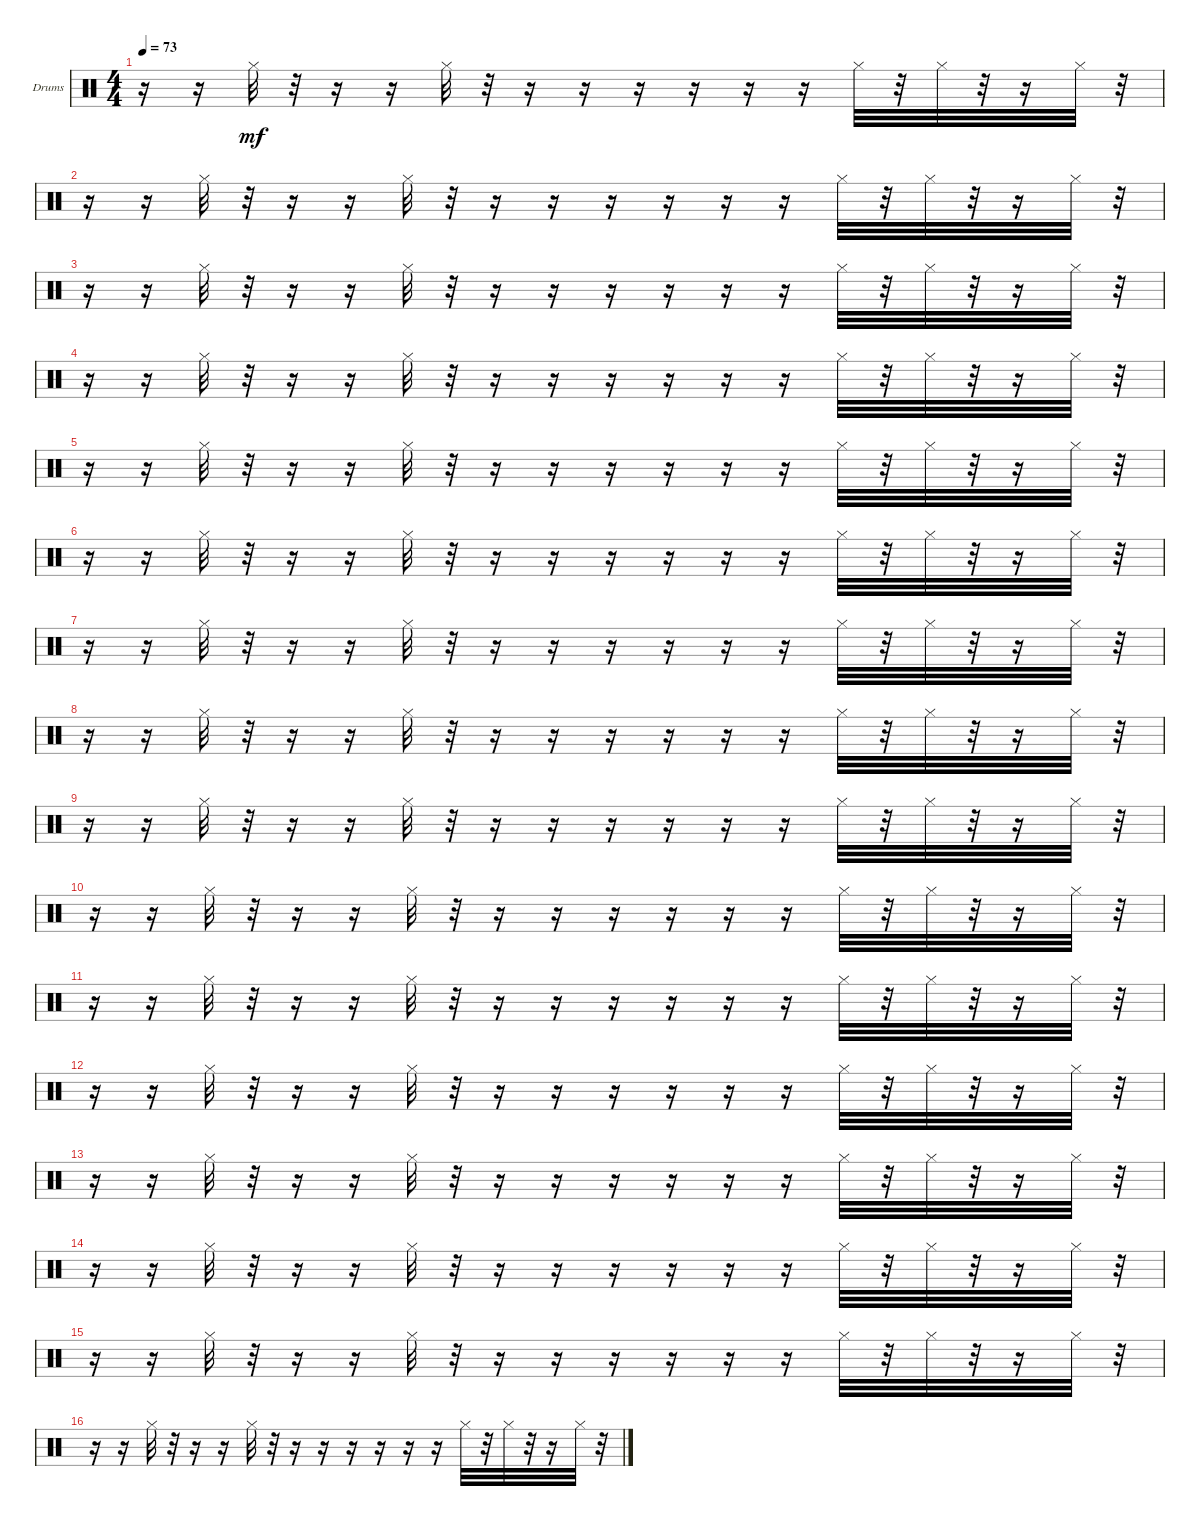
\bracketExtendMode groupsimilarinstruments
\firstSystemTrackNameOrientation horizontal
\otherSystemsTrackNameOrientation horizontal
\track ("hi hat" "Drums") {instrument percussion}
\staff {score}
\articulation defaults
\ts (4 4)
\tempo 73
\clef neutral
\ks c
r.16{dy mf} r.16 "Hi-Hat (closed)".32 r.32 r.16 r.16 "Hi-Hat (closed)".32 r.32 r.16 r.16 r.16 r.16 r.16 r.16 "Hi-Hat (closed)".32 r.32 "Hi-Hat (closed)".32 r.32 r.16 "Hi-Hat (closed)".32 r.32 |
r.16 r.16 "Hi-Hat (closed)".32 r.32 r.16 r.16 "Hi-Hat (closed)".32 r.32 r.16 r.16 r.16 r.16 r.16 r.16 "Hi-Hat (closed)".32 r.32 "Hi-Hat (closed)".32 r.32 r.16 "Hi-Hat (closed)".32 r.32 |
r.16 r.16 "Hi-Hat (closed)".32 r.32 r.16 r.16 "Hi-Hat (closed)".32 r.32 r.16 r.16 r.16 r.16 r.16 r.16 "Hi-Hat (closed)".32 r.32 "Hi-Hat (closed)".32 r.32 r.16 "Hi-Hat (closed)".32 r.32 |
r.16 r.16 "Hi-Hat (closed)".32 r.32 r.16 r.16 "Hi-Hat (closed)".32 r.32 r.16 r.16 r.16 r.16 r.16 r.16 "Hi-Hat (closed)".32 r.32 "Hi-Hat (closed)".32 r.32 r.16 "Hi-Hat (closed)".32 r.32 |
r.16 r.16 "Hi-Hat (closed)".32 r.32 r.16 r.16 "Hi-Hat (closed)".32 r.32 r.16 r.16 r.16 r.16 r.16 r.16 "Hi-Hat (closed)".32 r.32 "Hi-Hat (closed)".32 r.32 r.16 "Hi-Hat (closed)".32 r.32 |
r.16 r.16 "Hi-Hat (closed)".32 r.32 r.16 r.16 "Hi-Hat (closed)".32 r.32 r.16 r.16 r.16 r.16 r.16 r.16 "Hi-Hat (closed)".32 r.32 "Hi-Hat (closed)".32 r.32 r.16 "Hi-Hat (closed)".32 r.32 |
r.16 r.16 "Hi-Hat (closed)".32 r.32 r.16 r.16 "Hi-Hat (closed)".32 r.32 r.16 r.16 r.16 r.16 r.16 r.16 "Hi-Hat (closed)".32 r.32 "Hi-Hat (closed)".32 r.32 r.16 "Hi-Hat (closed)".32 r.32 |
r.16 r.16 "Hi-Hat (closed)".32 r.32 r.16 r.16 "Hi-Hat (closed)".32 r.32 r.16 r.16 r.16 r.16 r.16 r.16 "Hi-Hat (closed)".32 r.32 "Hi-Hat (closed)".32 r.32 r.16 "Hi-Hat (closed)".32 r.32 |
r.16 r.16 "Hi-Hat (closed)".32 r.32 r.16 r.16 "Hi-Hat (closed)".32 r.32 r.16 r.16 r.16 r.16 r.16 r.16 "Hi-Hat (closed)".32 r.32 "Hi-Hat (closed)".32 r.32 r.16 "Hi-Hat (closed)".32 r.32 |
r.16 r.16 "Hi-Hat (closed)".32 r.32 r.16 r.16 "Hi-Hat (closed)".32 r.32 r.16 r.16 r.16 r.16 r.16 r.16 "Hi-Hat (closed)".32 r.32 "Hi-Hat (closed)".32 r.32 r.16 "Hi-Hat (closed)".32 r.32 |
r.16 r.16 "Hi-Hat (closed)".32 r.32 r.16 r.16 "Hi-Hat (closed)".32 r.32 r.16 r.16 r.16 r.16 r.16 r.16 "Hi-Hat (closed)".32 r.32 "Hi-Hat (closed)".32 r.32 r.16 "Hi-Hat (closed)".32 r.32 |
r.16 r.16 "Hi-Hat (closed)".32 r.32 r.16 r.16 "Hi-Hat (closed)".32 r.32 r.16 r.16 r.16 r.16 r.16 r.16 "Hi-Hat (closed)".32 r.32 "Hi-Hat (closed)".32 r.32 r.16 "Hi-Hat (closed)".32 r.32 |
r.16 r.16 "Hi-Hat (closed)".32 r.32 r.16 r.16 "Hi-Hat (closed)".32 r.32 r.16 r.16 r.16 r.16 r.16 r.16 "Hi-Hat (closed)".32 r.32 "Hi-Hat (closed)".32 r.32 r.16 "Hi-Hat (closed)".32 r.32 |
r.16 r.16 "Hi-Hat (closed)".32 r.32 r.16 r.16 "Hi-Hat (closed)".32 r.32 r.16 r.16 r.16 r.16 r.16 r.16 "Hi-Hat (closed)".32 r.32 "Hi-Hat (closed)".32 r.32 r.16 "Hi-Hat (closed)".32 r.32 |
r.16 r.16 "Hi-Hat (closed)".32 r.32 r.16 r.16 "Hi-Hat (closed)".32 r.32 r.16 r.16 r.16 r.16 r.16 r.16 "Hi-Hat (closed)".32 r.32 "Hi-Hat (closed)".32 r.32 r.16 "Hi-Hat (closed)".32 r.32 |
r.16 r.16 "Hi-Hat (closed)".32 r.32 r.16 r.16 "Hi-Hat (closed)".32 r.32 r.16 r.16 r.16 r.16 r.16 r.16 "Hi-Hat (closed)".32 r.32 "Hi-Hat (closed)".32 r.32 r.16 "Hi-Hat (closed)".32 r.32
